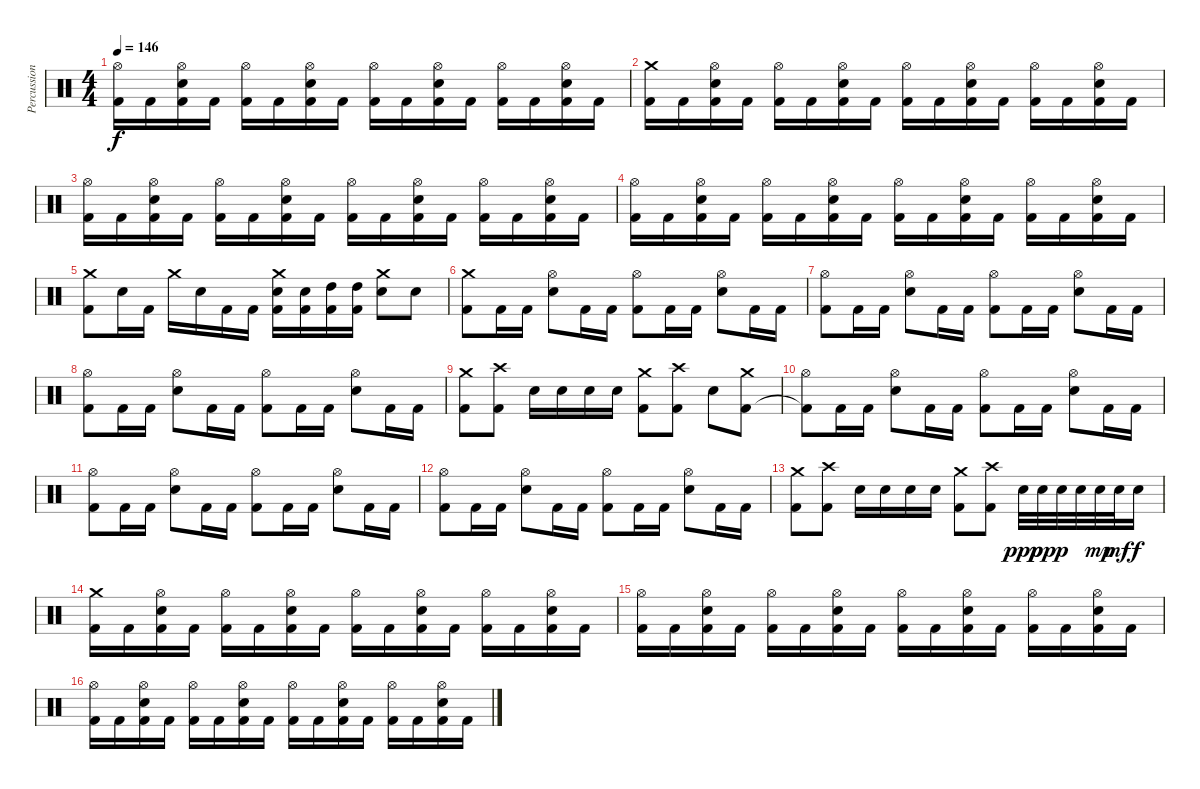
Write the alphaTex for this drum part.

\track ("Percussion" "Percussion") {instrument percussion}
\staff {score}
\articulation defaults
\ts (4 4)
\tempo 146
\clef neutral
\ks c
("Kick (hit) 2" "Hi-Hat (open)").16{dy f} "Kick (hit) 2".16 ("Kick (hit) 2" "Electric Snare (hit)" "Hi-Hat (open)").16 "Kick (hit) 2".16 ("Kick (hit) 2" "Hi-Hat (open)").16 "Kick (hit) 2".16 ("Kick (hit) 2" "Electric Snare (hit)" "Hi-Hat (open)").16 "Kick (hit) 2".16 ("Kick (hit) 2" "Hi-Hat (open)").16 "Kick (hit) 2".16 ("Kick (hit) 2" "Electric Snare (hit)" "Hi-Hat (open)").16 "Kick (hit) 2".16 ("Kick (hit) 2" "Hi-Hat (open)").16 "Kick (hit) 2".16 ("Kick (hit) 2" "Electric Snare (hit)" "Hi-Hat (open)").16 "Kick (hit) 2".16 |
("Kick (hit) 2" "Crash medium (hit)").16 "Kick (hit) 2".16 ("Kick (hit) 2" "Electric Snare (hit)" "Hi-Hat (open)").16 "Kick (hit) 2".16 ("Kick (hit) 2" "Hi-Hat (open)").16 "Kick (hit) 2".16 ("Kick (hit) 2" "Electric Snare (hit)" "Hi-Hat (open)").16 "Kick (hit) 2".16 ("Kick (hit) 2" "Hi-Hat (open)").16 "Kick (hit) 2".16 ("Kick (hit) 2" "Electric Snare (hit)" "Hi-Hat (open)").16 "Kick (hit) 2".16 ("Kick (hit) 2" "Hi-Hat (open)").16 "Kick (hit) 2".16 ("Kick (hit) 2" "Electric Snare (hit)" "Hi-Hat (open)").16 "Kick (hit) 2".16 |
("Kick (hit) 2" "Hi-Hat (open)").16 "Kick (hit) 2".16 ("Kick (hit) 2" "Electric Snare (hit)" "Hi-Hat (open)").16 "Kick (hit) 2".16 ("Kick (hit) 2" "Hi-Hat (open)").16 "Kick (hit) 2".16 ("Kick (hit) 2" "Electric Snare (hit)" "Hi-Hat (open)").16 "Kick (hit) 2".16 ("Kick (hit) 2" "Hi-Hat (open)").16 "Kick (hit) 2".16 ("Kick (hit) 2" "Electric Snare (hit)" "Hi-Hat (open)").16 "Kick (hit) 2".16 ("Kick (hit) 2" "Hi-Hat (open)").16 "Kick (hit) 2".16 ("Kick (hit) 2" "Electric Snare (hit)" "Hi-Hat (open)").16 "Kick (hit) 2".16 |
("Kick (hit) 2" "Hi-Hat (open)").16 "Kick (hit) 2".16 ("Kick (hit) 2" "Electric Snare (hit)" "Hi-Hat (open)").16 "Kick (hit) 2".16 ("Kick (hit) 2" "Hi-Hat (open)").16 "Kick (hit) 2".16 ("Kick (hit) 2" "Electric Snare (hit)" "Hi-Hat (open)").16 "Kick (hit) 2".16 ("Kick (hit) 2" "Hi-Hat (open)").16 "Kick (hit) 2".16 ("Kick (hit) 2" "Electric Snare (hit)" "Hi-Hat (open)").16 "Kick (hit) 2".16 ("Kick (hit) 2" "Hi-Hat (open)").16 "Kick (hit) 2".16 ("Kick (hit) 2" "Electric Snare (hit)" "Hi-Hat (open)").16 "Kick (hit) 2".16 |
("Kick (hit) 2" "Crash medium (hit)").8 "Electric Snare (hit)".16 "Kick (hit) 2".16 "Crash medium (hit)".16 "Electric Snare (hit)".16 "Kick (hit) 2".16 "Kick (hit) 2".16 ("Kick (hit) 2" "Electric Snare (hit)" "Crash medium (hit)").16 ("Kick (hit) 2" "Electric Snare (hit)").16 ("Kick (hit) 2" "High Tom (hit)").16 ("Kick (hit) 2" "High Tom (hit)").16 ("Electric Snare (hit)" "Crash medium (hit)").8 "Electric Snare (hit)".8 |
("Kick (hit) 2" "Crash medium (hit)").8 "Kick (hit) 2".16 "Kick (hit) 2".16 ("Electric Snare (hit)" "Hi-Hat (open)").8 "Kick (hit) 2".16 "Kick (hit) 2".16 ("Kick (hit) 2" "Hi-Hat (open)").8 "Kick (hit) 2".16 "Kick (hit) 2".16 ("Electric Snare (hit)" "Hi-Hat (open)").8 "Kick (hit) 2".16 "Kick (hit) 2".16 |
("Kick (hit) 2" "Hi-Hat (open)").8 "Kick (hit) 2".16 "Kick (hit) 2".16 ("Electric Snare (hit)" "Hi-Hat (open)").8 "Kick (hit) 2".16 "Kick (hit) 2".16 ("Kick (hit) 2" "Hi-Hat (open)").8 "Kick (hit) 2".16 "Kick (hit) 2".16 ("Electric Snare (hit)" "Hi-Hat (open)").8 "Kick (hit) 2".16 "Kick (hit) 2".16 |
("Kick (hit) 2" "Hi-Hat (open)").8 "Kick (hit) 2".16 "Kick (hit) 2".16 ("Electric Snare (hit)" "Hi-Hat (open)").8 "Kick (hit) 2".16 "Kick (hit) 2".16 ("Kick (hit) 2" "Hi-Hat (open)").8 "Kick (hit) 2".16 "Kick (hit) 2".16 ("Electric Snare (hit)" "Hi-Hat (open)").8 "Kick (hit) 2".16 "Kick (hit) 2".16 |
("Kick (hit) 2" "Crash medium (hit)").8 ("Kick (hit) 2" "Crash high (hit)").8 "Electric Snare (hit)".16 "Electric Snare (hit)".16 "Electric Snare (hit)".16 "Electric Snare (hit)".16 ("Kick (hit) 2" "Crash medium (hit)").8 ("Kick (hit) 2" "Crash high (hit)").8 "Electric Snare (hit)".8 ("Kick (hit) 2" "Crash medium (hit)").8 |
("Kick (hit) 2"{t} "Hi-Hat (open)").8 "Kick (hit) 2".16 "Kick (hit) 2".16 ("Electric Snare (hit)" "Hi-Hat (open)").8 "Kick (hit) 2".16 "Kick (hit) 2".16 ("Kick (hit) 2" "Hi-Hat (open)").8 "Kick (hit) 2".16 "Kick (hit) 2".16 ("Electric Snare (hit)" "Hi-Hat (open)").8 "Kick (hit) 2".16 "Kick (hit) 2".16 |
("Kick (hit) 2" "Hi-Hat (open)").8 "Kick (hit) 2".16 "Kick (hit) 2".16 ("Electric Snare (hit)" "Hi-Hat (open)").8 "Kick (hit) 2".16 "Kick (hit) 2".16 ("Kick (hit) 2" "Hi-Hat (open)").8 "Kick (hit) 2".16 "Kick (hit) 2".16 ("Electric Snare (hit)" "Hi-Hat (open)").8 "Kick (hit) 2".16 "Kick (hit) 2".16 |
("Kick (hit) 2" "Hi-Hat (open)").8 "Kick (hit) 2".16 "Kick (hit) 2".16 ("Electric Snare (hit)" "Hi-Hat (open)").8 "Kick (hit) 2".16 "Kick (hit) 2".16 ("Kick (hit) 2" "Hi-Hat (open)").8 "Kick (hit) 2".16 "Kick (hit) 2".16 ("Electric Snare (hit)" "Hi-Hat (open)").8 "Kick (hit) 2".16 "Kick (hit) 2".16 |
("Kick (hit) 2" "Crash medium (hit)").8 ("Kick (hit) 2" "Crash high (hit)").8 "Electric Snare (hit)".16 "Electric Snare (hit)".16 "Electric Snare (hit)".16 "Electric Snare (hit)".16 ("Kick (hit) 2" "Crash medium (hit)").8 ("Kick (hit) 2" "Crash high (hit)").8 "Electric Snare (hit)".32{dy ppp} "Electric Snare (hit)".32{dy pp} "Electric Snare (hit)".32{dy p} "Electric Snare (hit)".32 "Electric Snare (hit)".32{dy mp} "Electric Snare (hit)".32{dy mf} "Electric Snare (hit)".16{dy f} |
("Kick (hit) 2" "Crash medium (hit)").16 "Kick (hit) 2".16 ("Kick (hit) 2" "Electric Snare (hit)" "Hi-Hat (open)").16 "Kick (hit) 2".16 ("Kick (hit) 2" "Hi-Hat (open)").16 "Kick (hit) 2".16 ("Kick (hit) 2" "Electric Snare (hit)" "Hi-Hat (open)").16 "Kick (hit) 2".16 ("Kick (hit) 2" "Hi-Hat (open)").16 "Kick (hit) 2".16 ("Kick (hit) 2" "Electric Snare (hit)" "Hi-Hat (open)").16 "Kick (hit) 2".16 ("Kick (hit) 2" "Hi-Hat (open)").16 "Kick (hit) 2".16 ("Kick (hit) 2" "Electric Snare (hit)" "Hi-Hat (open)").16 "Kick (hit) 2".16 |
("Kick (hit) 2" "Hi-Hat (open)").16 "Kick (hit) 2".16 ("Kick (hit) 2" "Electric Snare (hit)" "Hi-Hat (open)").16 "Kick (hit) 2".16 ("Kick (hit) 2" "Hi-Hat (open)").16 "Kick (hit) 2".16 ("Kick (hit) 2" "Electric Snare (hit)" "Hi-Hat (open)").16 "Kick (hit) 2".16 ("Kick (hit) 2" "Hi-Hat (open)").16 "Kick (hit) 2".16 ("Kick (hit) 2" "Electric Snare (hit)" "Hi-Hat (open)").16 "Kick (hit) 2".16 ("Kick (hit) 2" "Hi-Hat (open)").16 "Kick (hit) 2".16 ("Kick (hit) 2" "Electric Snare (hit)" "Hi-Hat (open)").16 "Kick (hit) 2".16 |
("Kick (hit) 2" "Hi-Hat (open)").16 "Kick (hit) 2".16 ("Kick (hit) 2" "Electric Snare (hit)" "Hi-Hat (open)").16 "Kick (hit) 2".16 ("Kick (hit) 2" "Hi-Hat (open)").16 "Kick (hit) 2".16 ("Kick (hit) 2" "Electric Snare (hit)" "Hi-Hat (open)").16 "Kick (hit) 2".16 ("Kick (hit) 2" "Hi-Hat (open)").16 "Kick (hit) 2".16 ("Kick (hit) 2" "Electric Snare (hit)" "Hi-Hat (open)").16 "Kick (hit) 2".16 ("Kick (hit) 2" "Hi-Hat (open)").16 "Kick (hit) 2".16 ("Kick (hit) 2" "Electric Snare (hit)" "Hi-Hat (open)").16 "Kick (hit) 2".16
